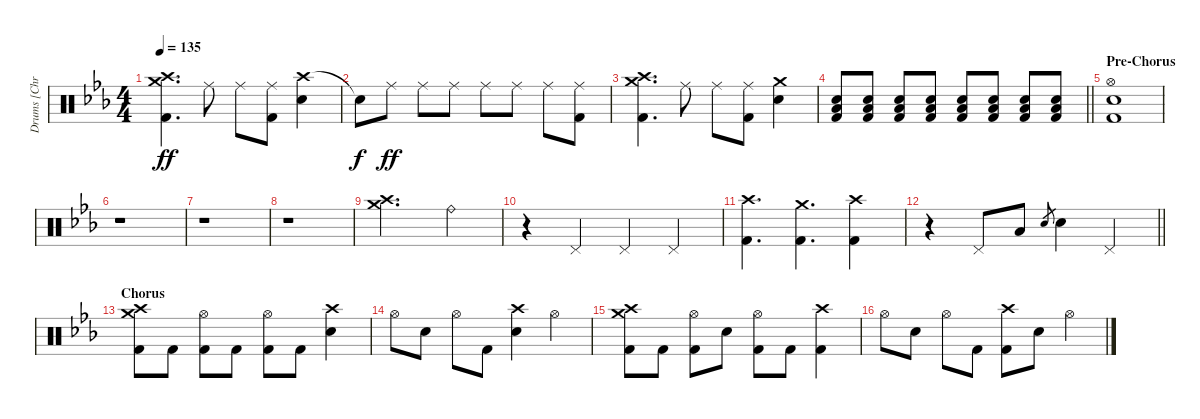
\track ("Drums [Chris Hornbrook]" "Drums [Chr") {instrument percussion}
\staff {score}
\articulation defaults
\ts (4 4)
\tempo 135
\clef neutral
\ks cminor
("Crash medium (hit)" "Crash high (hit)" "Kick (hit) 2").4{d dy ff} "Ride (middle)".8 "Ride (middle)".8 ("Ride (middle)" "Kick (hit) 2").8 ("Crash high (hit)" "Electric Snare (hit)").4 |
"Snare (hit)"{t}.8{dy f} "Ride (middle)".8{dy ff} "Ride (middle)".8 "Ride (middle)".8 "Ride (middle)".8 "Ride (middle)".8 "Ride (middle)".8 ("Ride (middle)" "Kick (hit) 2").8 |
("Crash medium (hit)" "Crash high (hit)" "Kick (hit) 2").4{d} "Ride (middle)".8 "Ride (middle)".8 ("Ride (middle)" "Kick (hit) 2").8 ("Crash medium (hit)" "Electric Snare (hit)").4 |
\barLineRight lightlight
("Low Tom (hit)" "Electric Snare (hit)" "Kick (hit) 2").8{volume 7} ("Low Tom (hit)" "Electric Snare (hit)" "Kick (hit) 2").8{volume 14} ("Low Tom (hit)" "Electric Snare (hit)" "Kick (hit) 2").8 ("Low Tom (hit)" "Electric Snare (hit)" "Kick (hit) 2").8 ("Low Tom (hit)" "Electric Snare (hit)" "Kick (hit) 2").8 ("Low Tom (hit)" "Electric Snare (hit)" "Kick (hit) 2").8 ("Low Tom (hit)" "Electric Snare (hit)" "Kick (hit) 2").8 ("Low Tom (hit)" "Electric Snare (hit)" "Kick (hit) 2").8 |
\section ("" "Pre-Chorus")
("Hi-Hat (open)" "Electric Snare (hit)" "Kick (hit) 2").1 |
r.1 |
r.1 |
r.1 |
("Crash medium (hit)" "Crash high (hit)").2{d} "Ride (bell)".4 |
r.4 "Pedal Hi-Hat (hit)".4 "Pedal Hi-Hat (hit)".4 "Pedal Hi-Hat (hit)".4 |
("Crash high (hit)" "Kick (hit) 2").4{d} ("Crash medium (hit)" "Kick (hit) 2").4{d} ("Crash high (hit)" "Kick (hit) 2").4 |
\barLineRight lightlight
r.4 "Pedal Hi-Hat (hit)".8 "Low Floor Tom (hit)".8 "Electric Snare (hit)".8{gr} "Electric Snare (hit)".4 "Pedal Hi-Hat (hit)".4 |
\section ("" "Chorus")
("Crash medium (hit)" "Crash high (hit)" "Kick (hit) 2").8 "Kick (hit) 2".8 ("Hi-Hat (open)" "Kick (hit) 2").8 "Kick (hit) 2".8 ("Hi-Hat (open)" "Kick (hit) 2").8 "Kick (hit) 2".8 ("Crash high (hit)" "Electric Snare (hit)").4 |
"Hi-Hat (open)".8 "Electric Snare (hit)".8 "Hi-Hat (open)".8 "Kick (hit) 2".8 ("Crash high (hit)" "Electric Snare (hit)").4 "Hi-Hat (open)".4 |
("Crash medium (hit)" "Crash high (hit)" "Kick (hit) 2").8 "Kick (hit) 2".8 ("Hi-Hat (open)" "Kick (hit) 2").8 "Electric Snare (hit)".8 ("Hi-Hat (open)" "Kick (hit) 2").8 "Kick (hit) 2".8 ("Crash high (hit)" "Kick (hit) 2").4 |
"Hi-Hat (open)".8 "Electric Snare (hit)".8 "Hi-Hat (open)".8 "Kick (hit) 2".8 ("Crash high (hit)" "Kick (hit) 2").8 "Electric Snare (hit)".8 "Hi-Hat (open)".4
